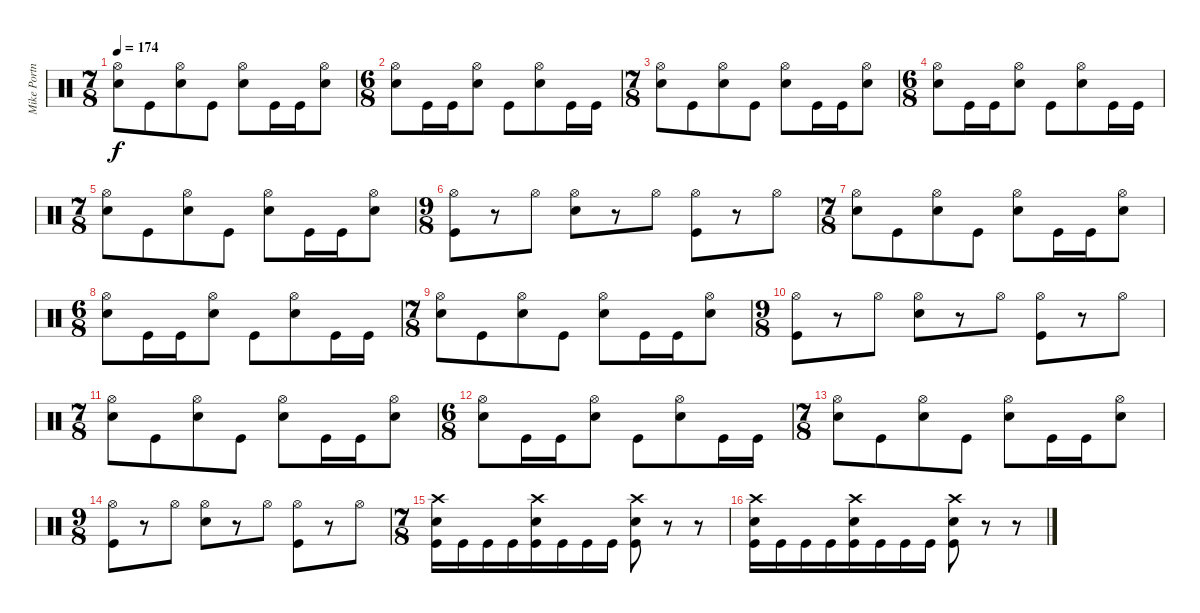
\track ("Mike Portnoy" "Mike Portn") {instrument percussion}
\staff {score}
\articulation defaults
\ts (7 8)
\tempo 174
\clef neutral
\ks c
("Snare (hit) 2" "Hi-Hat (open)").8{dy f} "Kick (hit)".8 ("Snare (hit) 2" "Hi-Hat (open)").8 "Kick (hit)".8 ("Snare (hit) 2" "Hi-Hat (open)").8 "Kick (hit)".16 "Kick (hit)".16 ("Snare (hit) 2" "Hi-Hat (open)").8 |
\ts (6 8)
("Snare (hit) 2" "Hi-Hat (open)").8 "Kick (hit)".16 "Kick (hit)".16 ("Snare (hit) 2" "Hi-Hat (open)").8 "Kick (hit)".8 ("Snare (hit) 2" "Hi-Hat (open)").8 "Kick (hit)".16 "Kick (hit)".16 |
\ts (7 8)
("Snare (hit) 2" "Hi-Hat (open)").8 "Kick (hit)".8 ("Snare (hit) 2" "Hi-Hat (open)").8 "Kick (hit)".8 ("Snare (hit) 2" "Hi-Hat (open)").8 "Kick (hit)".16 "Kick (hit)".16 ("Snare (hit) 2" "Hi-Hat (open)").8 |
\ts (6 8)
("Snare (hit) 2" "Hi-Hat (open)").8 "Kick (hit)".16 "Kick (hit)".16 ("Snare (hit) 2" "Hi-Hat (open)").8 "Kick (hit)".8 ("Snare (hit) 2" "Hi-Hat (open)").8 "Kick (hit)".16 "Kick (hit)".16 |
\ts (7 8)
("Snare (hit) 2" "Hi-Hat (open)").8 "Kick (hit)".8 ("Snare (hit) 2" "Hi-Hat (open)").8 "Kick (hit)".8 ("Snare (hit) 2" "Hi-Hat (open)").8 "Kick (hit)".16 "Kick (hit)".16 ("Snare (hit) 2" "Hi-Hat (open)").8 |
\ts (9 8)
("Hi-Hat (open)" "Kick (hit)").8 r.8 "Hi-Hat (open)".8 ("Snare (hit) 2" "Hi-Hat (open)").8 r.8 "Hi-Hat (open)".8 ("Hi-Hat (open)" "Kick (hit)").8 r.8 "Hi-Hat (open)".8 |
\ts (7 8)
("Snare (hit) 2" "Hi-Hat (open)").8 "Kick (hit)".8 ("Snare (hit) 2" "Hi-Hat (open)").8 "Kick (hit)".8 ("Snare (hit) 2" "Hi-Hat (open)").8 "Kick (hit)".16 "Kick (hit)".16 ("Snare (hit) 2" "Hi-Hat (open)").8 |
\ts (6 8)
("Snare (hit) 2" "Hi-Hat (open)").8 "Kick (hit)".16 "Kick (hit)".16 ("Snare (hit) 2" "Hi-Hat (open)").8 "Kick (hit)".8 ("Snare (hit) 2" "Hi-Hat (open)").8 "Kick (hit)".16 "Kick (hit)".16 |
\ts (7 8)
("Snare (hit) 2" "Hi-Hat (open)").8 "Kick (hit)".8 ("Snare (hit) 2" "Hi-Hat (open)").8 "Kick (hit)".8 ("Snare (hit) 2" "Hi-Hat (open)").8 "Kick (hit)".16 "Kick (hit)".16 ("Snare (hit) 2" "Hi-Hat (open)").8 |
\ts (9 8)
("Hi-Hat (open)" "Kick (hit)").8 r.8 "Hi-Hat (open)".8 ("Snare (hit) 2" "Hi-Hat (open)").8 r.8 "Hi-Hat (open)".8 ("Hi-Hat (open)" "Kick (hit)").8 r.8 "Hi-Hat (open)".8 |
\ts (7 8)
("Snare (hit) 2" "Hi-Hat (open)").8 "Kick (hit)".8 ("Snare (hit) 2" "Hi-Hat (open)").8 "Kick (hit)".8 ("Snare (hit) 2" "Hi-Hat (open)").8 "Kick (hit)".16 "Kick (hit)".16 ("Snare (hit) 2" "Hi-Hat (open)").8 |
\ts (6 8)
("Snare (hit) 2" "Hi-Hat (open)").8 "Kick (hit)".16 "Kick (hit)".16 ("Snare (hit) 2" "Hi-Hat (open)").8 "Kick (hit)".8 ("Snare (hit) 2" "Hi-Hat (open)").8 "Kick (hit)".16 "Kick (hit)".16 |
\ts (7 8)
("Snare (hit) 2" "Hi-Hat (open)").8 "Kick (hit)".8 ("Snare (hit) 2" "Hi-Hat (open)").8 "Kick (hit)".8 ("Snare (hit) 2" "Hi-Hat (open)").8 "Kick (hit)".16 "Kick (hit)".16 ("Snare (hit) 2" "Hi-Hat (open)").8 |
\ts (9 8)
("Hi-Hat (open)" "Kick (hit)").8 r.8 "Hi-Hat (open)".8 ("Snare (hit) 2" "Hi-Hat (open)").8 r.8 "Hi-Hat (open)".8 ("Hi-Hat (open)" "Kick (hit)").8 r.8 "Hi-Hat (open)".8 |
\ts (7 8)
("Snare (hit) 2" "Crash high (hit)" "Kick (hit)").16 "Kick (hit)".16 "Kick (hit)".16 "Kick (hit)".16 ("Snare (hit) 2" "Crash high (hit)" "Kick (hit)").16 "Kick (hit)".16 "Kick (hit)".16 "Kick (hit)".16 ("Snare (hit) 2" "Crash high (hit)" "Kick (hit)").8 r.8 r.8 |
("Snare (hit) 2" "Crash high (hit)" "Kick (hit)").16 "Kick (hit)".16 "Kick (hit)".16 "Kick (hit)".16 ("Snare (hit) 2" "Crash high (hit)" "Kick (hit)").16 "Kick (hit)".16 "Kick (hit)".16 "Kick (hit)".16 ("Snare (hit) 2" "Crash high (hit)" "Kick (hit)").8 r.8 r.8
